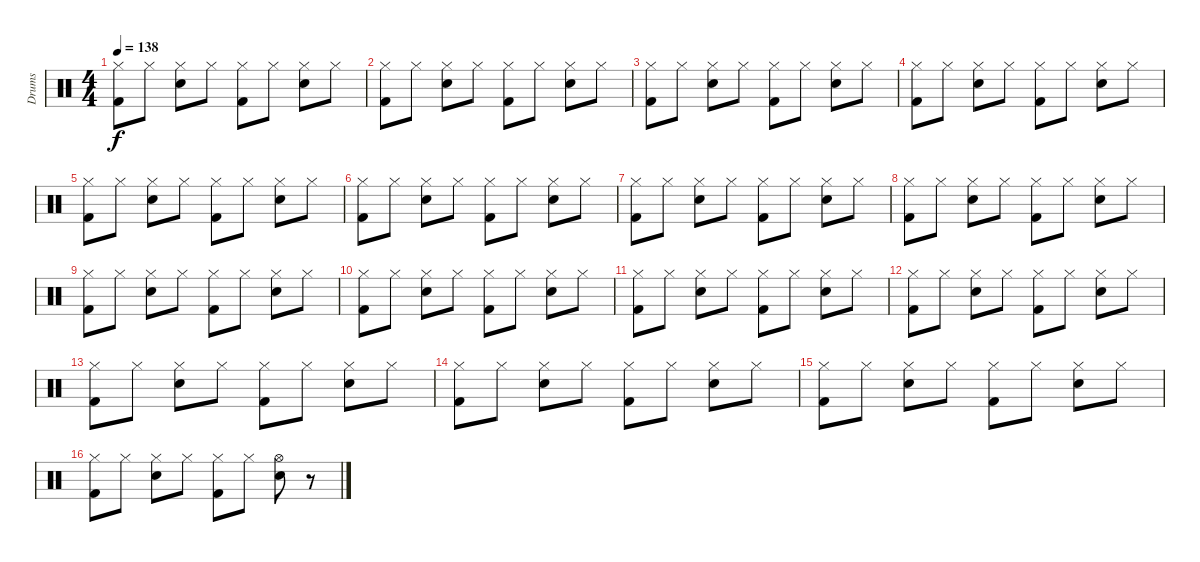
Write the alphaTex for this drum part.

\track ("Drums" "Drums") {instrument percussion}
\staff {score}
\articulation defaults
\ts (4 4)
\tempo 138
\clef neutral
\ks c
("Hi-Hat (closed)" "Kick (hit) 2").8{dy f} "Hi-Hat (closed)".8 ("Hi-Hat (closed)" "Electric Snare (hit)").8 "Hi-Hat (closed)".8 ("Hi-Hat (closed)" "Kick (hit) 2").8 "Hi-Hat (closed)".8 ("Hi-Hat (closed)" "Electric Snare (hit)").8 "Hi-Hat (closed)".8 |
("Hi-Hat (closed)" "Kick (hit) 2").8 "Hi-Hat (closed)".8 ("Hi-Hat (closed)" "Electric Snare (hit)").8 "Hi-Hat (closed)".8 ("Hi-Hat (closed)" "Kick (hit) 2").8 "Hi-Hat (closed)".8 ("Hi-Hat (closed)" "Electric Snare (hit)").8 "Hi-Hat (closed)".8 |
("Hi-Hat (closed)" "Kick (hit) 2").8 "Hi-Hat (closed)".8 ("Hi-Hat (closed)" "Electric Snare (hit)").8 "Hi-Hat (closed)".8 ("Hi-Hat (closed)" "Kick (hit) 2").8 "Hi-Hat (closed)".8 ("Hi-Hat (closed)" "Electric Snare (hit)").8 "Hi-Hat (closed)".8 |
("Hi-Hat (closed)" "Kick (hit) 2").8 "Hi-Hat (closed)".8 ("Hi-Hat (closed)" "Electric Snare (hit)").8 "Hi-Hat (closed)".8 ("Hi-Hat (closed)" "Kick (hit) 2").8 "Hi-Hat (closed)".8 ("Hi-Hat (closed)" "Electric Snare (hit)").8 "Hi-Hat (closed)".8 |
("Hi-Hat (closed)" "Kick (hit) 2").8 "Hi-Hat (closed)".8 ("Hi-Hat (closed)" "Electric Snare (hit)").8 "Hi-Hat (closed)".8 ("Hi-Hat (closed)" "Kick (hit) 2").8 "Hi-Hat (closed)".8 ("Hi-Hat (closed)" "Electric Snare (hit)").8 "Hi-Hat (closed)".8 |
("Hi-Hat (closed)" "Kick (hit) 2").8 "Hi-Hat (closed)".8 ("Hi-Hat (closed)" "Electric Snare (hit)").8 "Hi-Hat (closed)".8 ("Hi-Hat (closed)" "Kick (hit) 2").8 "Hi-Hat (closed)".8 ("Hi-Hat (closed)" "Electric Snare (hit)").8 "Hi-Hat (closed)".8 |
("Hi-Hat (closed)" "Kick (hit) 2").8 "Hi-Hat (closed)".8 ("Hi-Hat (closed)" "Electric Snare (hit)").8 "Hi-Hat (closed)".8 ("Hi-Hat (closed)" "Kick (hit) 2").8 "Hi-Hat (closed)".8 ("Hi-Hat (closed)" "Electric Snare (hit)").8 "Hi-Hat (closed)".8 |
("Hi-Hat (closed)" "Kick (hit) 2").8 "Hi-Hat (closed)".8 ("Hi-Hat (closed)" "Electric Snare (hit)").8 "Hi-Hat (closed)".8 ("Hi-Hat (closed)" "Kick (hit) 2").8 "Hi-Hat (closed)".8 ("Hi-Hat (closed)" "Electric Snare (hit)").8 "Hi-Hat (closed)".8 |
("Hi-Hat (closed)" "Kick (hit) 2").8 "Hi-Hat (closed)".8 ("Hi-Hat (closed)" "Electric Snare (hit)").8 "Hi-Hat (closed)".8 ("Hi-Hat (closed)" "Kick (hit) 2").8 "Hi-Hat (closed)".8 ("Hi-Hat (closed)" "Electric Snare (hit)").8 "Hi-Hat (closed)".8 |
("Hi-Hat (closed)" "Kick (hit) 2").8 "Hi-Hat (closed)".8 ("Hi-Hat (closed)" "Electric Snare (hit)").8 "Hi-Hat (closed)".8 ("Hi-Hat (closed)" "Kick (hit) 2").8 "Hi-Hat (closed)".8 ("Hi-Hat (closed)" "Electric Snare (hit)").8 "Hi-Hat (closed)".8 |
("Hi-Hat (closed)" "Kick (hit) 2").8 "Hi-Hat (closed)".8 ("Hi-Hat (closed)" "Electric Snare (hit)").8 "Hi-Hat (closed)".8 ("Hi-Hat (closed)" "Kick (hit) 2").8 "Hi-Hat (closed)".8 ("Hi-Hat (closed)" "Electric Snare (hit)").8 "Hi-Hat (closed)".8 |
("Hi-Hat (closed)" "Kick (hit) 2").8 "Hi-Hat (closed)".8 ("Hi-Hat (closed)" "Electric Snare (hit)").8 "Hi-Hat (closed)".8 ("Hi-Hat (closed)" "Kick (hit) 2").8 "Hi-Hat (closed)".8 ("Hi-Hat (closed)" "Electric Snare (hit)").8 "Hi-Hat (closed)".8 |
("Hi-Hat (closed)" "Kick (hit) 2").8 "Hi-Hat (closed)".8 ("Hi-Hat (closed)" "Electric Snare (hit)").8 "Hi-Hat (closed)".8 ("Hi-Hat (closed)" "Kick (hit) 2").8 "Hi-Hat (closed)".8 ("Hi-Hat (closed)" "Electric Snare (hit)").8 "Hi-Hat (closed)".8 |
("Hi-Hat (closed)" "Kick (hit) 2").8 "Hi-Hat (closed)".8 ("Hi-Hat (closed)" "Electric Snare (hit)").8 "Hi-Hat (closed)".8 ("Hi-Hat (closed)" "Kick (hit) 2").8 "Hi-Hat (closed)".8 ("Hi-Hat (closed)" "Electric Snare (hit)").8 "Hi-Hat (closed)".8 |
("Hi-Hat (closed)" "Kick (hit) 2").8 "Hi-Hat (closed)".8 ("Hi-Hat (closed)" "Electric Snare (hit)").8 "Hi-Hat (closed)".8 ("Hi-Hat (closed)" "Kick (hit) 2").8 "Hi-Hat (closed)".8 ("Hi-Hat (closed)" "Electric Snare (hit)").8 "Hi-Hat (closed)".8 |
("Hi-Hat (closed)" "Kick (hit) 2").8 "Hi-Hat (closed)".8 ("Hi-Hat (closed)" "Electric Snare (hit)").8 "Hi-Hat (closed)".8 ("Hi-Hat (closed)" "Kick (hit) 2").8 "Hi-Hat (closed)".8 ("Hi-Hat (open)" "Electric Snare (hit)").8 r.8
